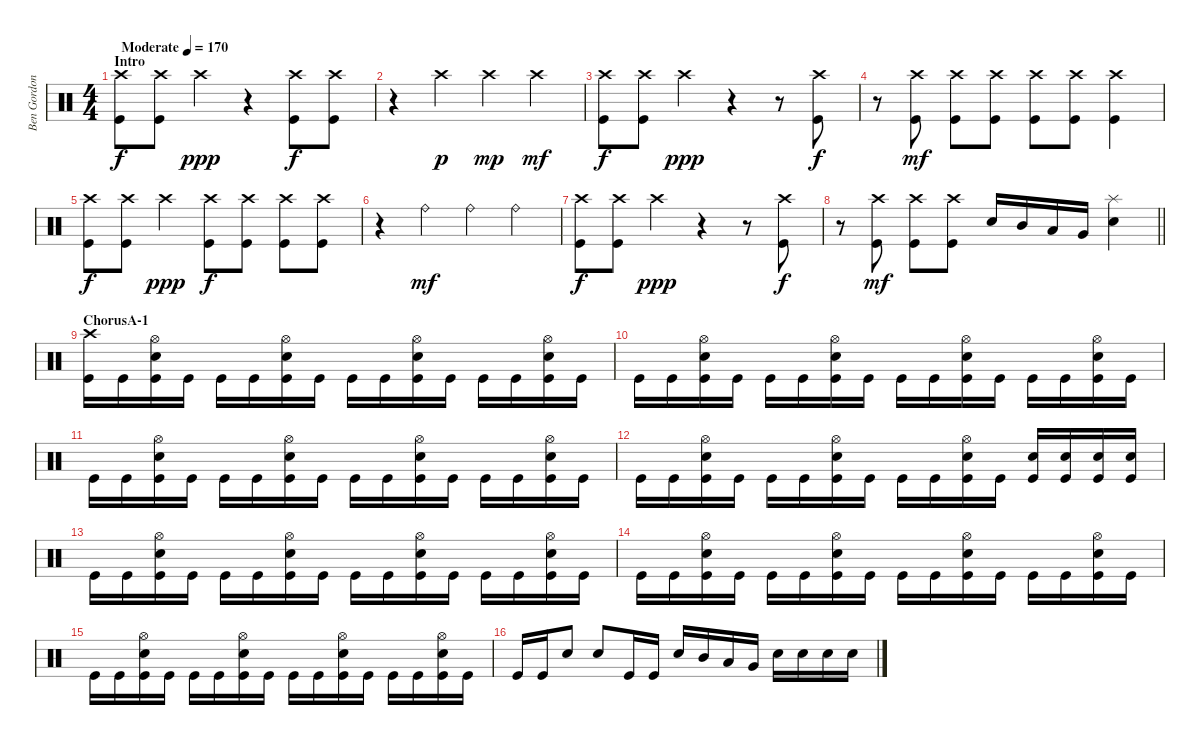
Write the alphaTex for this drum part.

\track ("Ben Gordon" "Ben Gordon") {instrument percussion}
\staff {score}
\articulation defaults
\ts (4 4)
\section ("" "Intro")
\tempo (170 "Moderate")
\clef neutral
\ks c
("Crash high (hit)" "Kick (hit)").8{dy f} ("Crash high (hit)" "Kick (hit)").8 "Crash high (hit)".4{dy ppp} r.4 ("Crash high (hit)" "Kick (hit)").8{dy f} ("Crash high (hit)" "Kick (hit)").8 |
r.4 "Crash high (hit)".4{dy p} "Crash high (hit)".4{dy mp} "Crash high (hit)".4{dy mf} |
("Crash high (hit)" "Kick (hit)").8{dy f} ("Crash high (hit)" "Kick (hit)").8 "Crash high (hit)".4{dy ppp} r.4 r.8 ("Crash high (hit)" "Kick (hit)").8{dy f} |
r.8 ("Crash high (hit)" "Kick (hit)").8{dy mf} ("Crash high (hit)" "Kick (hit)").8 ("Crash high (hit)" "Kick (hit)").8 ("Crash high (hit)" "Kick (hit)").8 ("Crash high (hit)" "Kick (hit)").8 ("Crash high (hit)" "Kick (hit)").4 |
("Crash high (hit)" "Kick (hit)").8{dy f} ("Crash high (hit)" "Kick (hit)").8 "Crash high (hit)".4{dy ppp} ("Crash high (hit)" "Kick (hit)").8{dy f} ("Crash high (hit)" "Kick (hit)").8 ("Crash high (hit)" "Kick (hit)").8 ("Crash high (hit)" "Kick (hit)").8 |
r.4 "Ride (bell)".4{dy mf} "Ride (bell)".4 "Ride (bell)".4 |
("Crash high (hit)" "Kick (hit)").8{dy f} ("Crash high (hit)" "Kick (hit)").8 "Crash high (hit)".4{dy ppp} r.4 r.8 ("Crash high (hit)" "Kick (hit)").8{dy f} |
\barLineRight lightlight
r.8 ("Crash high (hit)" "Kick (hit)").8{dy mf} ("Crash high (hit)" "Kick (hit)").8 ("Crash high (hit)" "Kick (hit)").8 "Electric Snare (hit)".16 "Mid Tom (hit)".16 "Low Tom (hit)".16 "Very Low Tom (hit)".16 ("Splash (hit)" "Electric Snare (hit)").4 |
\section ("" "ChorusA-1")
("Crash high (hit)" "Kick (hit)").16 "Kick (hit)".16 ("Hi-Hat (open)" "Electric Snare (hit)" "Kick (hit)").16 "Kick (hit)".16 "Kick (hit)".16 "Kick (hit)".16 ("Hi-Hat (open)" "Electric Snare (hit)" "Kick (hit)").16 "Kick (hit)".16 "Kick (hit)".16 "Kick (hit)".16 ("Hi-Hat (open)" "Electric Snare (hit)" "Kick (hit)").16 "Kick (hit)".16 "Kick (hit)".16 "Kick (hit)".16 ("Hi-Hat (open)" "Electric Snare (hit)" "Kick (hit)").16 "Kick (hit)".16 |
"Kick (hit)".16 "Kick (hit)".16 ("Hi-Hat (open)" "Electric Snare (hit)" "Kick (hit)").16 "Kick (hit)".16 "Kick (hit)".16 "Kick (hit)".16 ("Hi-Hat (open)" "Electric Snare (hit)" "Kick (hit)").16 "Kick (hit)".16 "Kick (hit)".16 "Kick (hit)".16 ("Hi-Hat (open)" "Electric Snare (hit)" "Kick (hit)").16 "Kick (hit)".16 "Kick (hit)".16 "Kick (hit)".16 ("Hi-Hat (open)" "Electric Snare (hit)" "Kick (hit)").16 "Kick (hit)".16 |
"Kick (hit)".16 "Kick (hit)".16 ("Hi-Hat (open)" "Electric Snare (hit)" "Kick (hit)").16 "Kick (hit)".16 "Kick (hit)".16 "Kick (hit)".16 ("Hi-Hat (open)" "Electric Snare (hit)" "Kick (hit)").16 "Kick (hit)".16 "Kick (hit)".16 "Kick (hit)".16 ("Hi-Hat (open)" "Electric Snare (hit)" "Kick (hit)").16 "Kick (hit)".16 "Kick (hit)".16 "Kick (hit)".16 ("Hi-Hat (open)" "Electric Snare (hit)" "Kick (hit)").16 "Kick (hit)".16 |
"Kick (hit)".16 "Kick (hit)".16 ("Hi-Hat (open)" "Electric Snare (hit)" "Kick (hit)").16 "Kick (hit)".16 "Kick (hit)".16 "Kick (hit)".16 ("Hi-Hat (open)" "Electric Snare (hit)" "Kick (hit)").16 "Kick (hit)".16 "Kick (hit)".16 "Kick (hit)".16 ("Hi-Hat (open)" "Electric Snare (hit)" "Kick (hit)").16 "Kick (hit)".16 ("Electric Snare (hit)" "Kick (hit)").16 ("Electric Snare (hit)" "Kick (hit)").16 ("Electric Snare (hit)" "Kick (hit)").16 ("Electric Snare (hit)" "Kick (hit)").16 |
"Kick (hit)".16 "Kick (hit)".16 ("Hi-Hat (open)" "Electric Snare (hit)" "Kick (hit)").16 "Kick (hit)".16 "Kick (hit)".16 "Kick (hit)".16 ("Hi-Hat (open)" "Electric Snare (hit)" "Kick (hit)").16 "Kick (hit)".16 "Kick (hit)".16 "Kick (hit)".16 ("Hi-Hat (open)" "Electric Snare (hit)" "Kick (hit)").16 "Kick (hit)".16 "Kick (hit)".16 "Kick (hit)".16 ("Hi-Hat (open)" "Electric Snare (hit)" "Kick (hit)").16 "Kick (hit)".16 |
"Kick (hit)".16 "Kick (hit)".16 ("Hi-Hat (open)" "Electric Snare (hit)" "Kick (hit)").16 "Kick (hit)".16 "Kick (hit)".16 "Kick (hit)".16 ("Hi-Hat (open)" "Electric Snare (hit)" "Kick (hit)").16 "Kick (hit)".16 "Kick (hit)".16 "Kick (hit)".16 ("Hi-Hat (open)" "Electric Snare (hit)" "Kick (hit)").16 "Kick (hit)".16 "Kick (hit)".16 "Kick (hit)".16 ("Hi-Hat (open)" "Electric Snare (hit)" "Kick (hit)").16 "Kick (hit)".16 |
"Kick (hit)".16 "Kick (hit)".16 ("Hi-Hat (open)" "Electric Snare (hit)" "Kick (hit)").16 "Kick (hit)".16 "Kick (hit)".16 "Kick (hit)".16 ("Hi-Hat (open)" "Electric Snare (hit)" "Kick (hit)").16 "Kick (hit)".16 "Kick (hit)".16 "Kick (hit)".16 ("Hi-Hat (open)" "Electric Snare (hit)" "Kick (hit)").16 "Kick (hit)".16 "Kick (hit)".16 "Kick (hit)".16 ("Hi-Hat (open)" "Electric Snare (hit)" "Kick (hit)").16 "Kick (hit)".16 |
"Kick (hit)".16 "Kick (hit)".16 "Electric Snare (hit)".8 "Electric Snare (hit)".8 "Kick (hit)".16 "Kick (hit)".16 "Electric Snare (hit)".16 "Mid Tom (hit)".16 "Low Tom (hit)".16 "Very Low Tom (hit)".16 "Electric Snare (hit)".16 "Electric Snare (hit)".16 "Electric Snare (hit)".16 "Electric Snare (hit)".16
